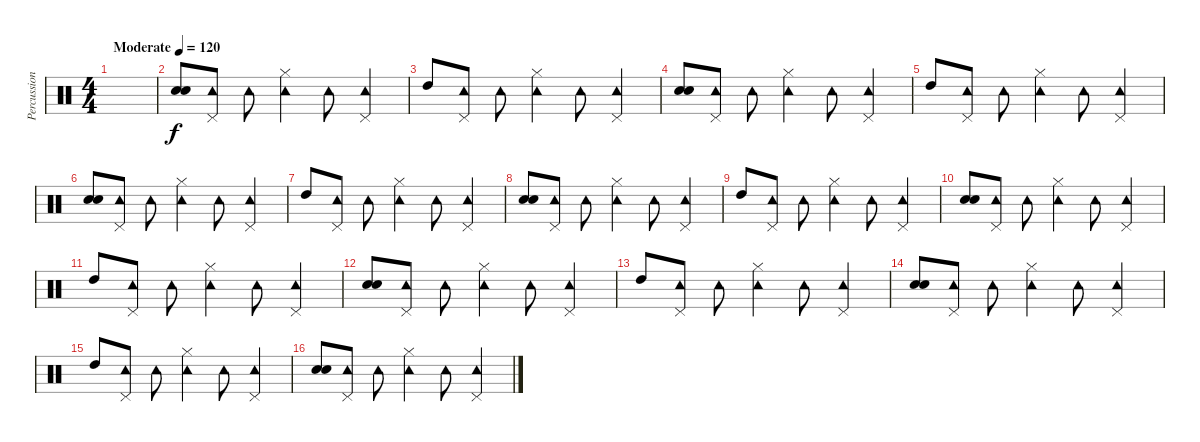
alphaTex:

\track ("Percussioni" "Percussion") {instrument percussion}
\staff {score}
\articulation defaults
\ts (4 4)
\tempo (120 "Moderate")
\clef neutral
\ks c
|
("Electric Snare (hit)" "Snare (hit) 2").8 ("Tambourine (hit)" "Pedal Hi-Hat (hit)").8 "Tambourine (hit)".8 ("Tambourine (hit)" "Hi-Hat (closed)").4 "Tambourine (hit)".8 ("Tambourine (hit)" "Pedal Hi-Hat (hit)").4 |
"High Tom (hit)".8 ("Tambourine (hit)" "Pedal Hi-Hat (hit)").8 "Tambourine (hit)".8 ("Tambourine (hit)" "Hi-Hat (closed)").4 "Tambourine (hit)".8 ("Tambourine (hit)" "Pedal Hi-Hat (hit)").4 |
("Electric Snare (hit)" "Snare (hit) 2").8 ("Tambourine (hit)" "Pedal Hi-Hat (hit)").8 "Tambourine (hit)".8 ("Tambourine (hit)" "Hi-Hat (closed)").4 "Tambourine (hit)".8 ("Tambourine (hit)" "Pedal Hi-Hat (hit)").4 |
"High Tom (hit)".8 ("Tambourine (hit)" "Pedal Hi-Hat (hit)").8 "Tambourine (hit)".8 ("Tambourine (hit)" "Hi-Hat (closed)").4 "Tambourine (hit)".8 ("Tambourine (hit)" "Pedal Hi-Hat (hit)").4 |
("Electric Snare (hit)" "Snare (hit) 2").8 ("Tambourine (hit)" "Pedal Hi-Hat (hit)").8 "Tambourine (hit)".8 ("Tambourine (hit)" "Hi-Hat (closed)").4 "Tambourine (hit)".8 ("Tambourine (hit)" "Pedal Hi-Hat (hit)").4 |
"High Tom (hit)".8 ("Tambourine (hit)" "Pedal Hi-Hat (hit)").8 "Tambourine (hit)".8 ("Tambourine (hit)" "Hi-Hat (closed)").4 "Tambourine (hit)".8 ("Tambourine (hit)" "Pedal Hi-Hat (hit)").4 |
("Electric Snare (hit)" "Snare (hit) 2").8 ("Tambourine (hit)" "Pedal Hi-Hat (hit)").8 "Tambourine (hit)".8 ("Tambourine (hit)" "Hi-Hat (closed)").4 "Tambourine (hit)".8 ("Tambourine (hit)" "Pedal Hi-Hat (hit)").4 |
"High Tom (hit)".8 ("Tambourine (hit)" "Pedal Hi-Hat (hit)").8 "Tambourine (hit)".8 ("Tambourine (hit)" "Hi-Hat (closed)").4 "Tambourine (hit)".8 ("Tambourine (hit)" "Pedal Hi-Hat (hit)").4 |
("Electric Snare (hit)" "Snare (hit) 2").8 ("Tambourine (hit)" "Pedal Hi-Hat (hit)").8 "Tambourine (hit)".8 ("Tambourine (hit)" "Hi-Hat (closed)").4 "Tambourine (hit)".8 ("Tambourine (hit)" "Pedal Hi-Hat (hit)").4 |
"High Tom (hit)".8 ("Tambourine (hit)" "Pedal Hi-Hat (hit)").8 "Tambourine (hit)".8 ("Tambourine (hit)" "Hi-Hat (closed)").4 "Tambourine (hit)".8 ("Tambourine (hit)" "Pedal Hi-Hat (hit)").4 |
("Electric Snare (hit)" "Snare (hit) 2").8 ("Tambourine (hit)" "Pedal Hi-Hat (hit)").8 "Tambourine (hit)".8 ("Tambourine (hit)" "Hi-Hat (closed)").4 "Tambourine (hit)".8 ("Tambourine (hit)" "Pedal Hi-Hat (hit)").4 |
"High Tom (hit)".8 ("Tambourine (hit)" "Pedal Hi-Hat (hit)").8 "Tambourine (hit)".8 ("Tambourine (hit)" "Hi-Hat (closed)").4 "Tambourine (hit)".8 ("Tambourine (hit)" "Pedal Hi-Hat (hit)").4 |
("Electric Snare (hit)" "Snare (hit) 2").8 ("Tambourine (hit)" "Pedal Hi-Hat (hit)").8 "Tambourine (hit)".8 ("Tambourine (hit)" "Hi-Hat (closed)").4 "Tambourine (hit)".8 ("Tambourine (hit)" "Pedal Hi-Hat (hit)").4 |
"High Tom (hit)".8 ("Tambourine (hit)" "Pedal Hi-Hat (hit)").8 "Tambourine (hit)".8 ("Tambourine (hit)" "Hi-Hat (closed)").4 "Tambourine (hit)".8 ("Tambourine (hit)" "Pedal Hi-Hat (hit)").4 |
("Electric Snare (hit)" "Snare (hit) 2").8 ("Tambourine (hit)" "Pedal Hi-Hat (hit)").8 "Tambourine (hit)".8 ("Tambourine (hit)" "Hi-Hat (closed)").4 "Tambourine (hit)".8 ("Tambourine (hit)" "Pedal Hi-Hat (hit)").4
